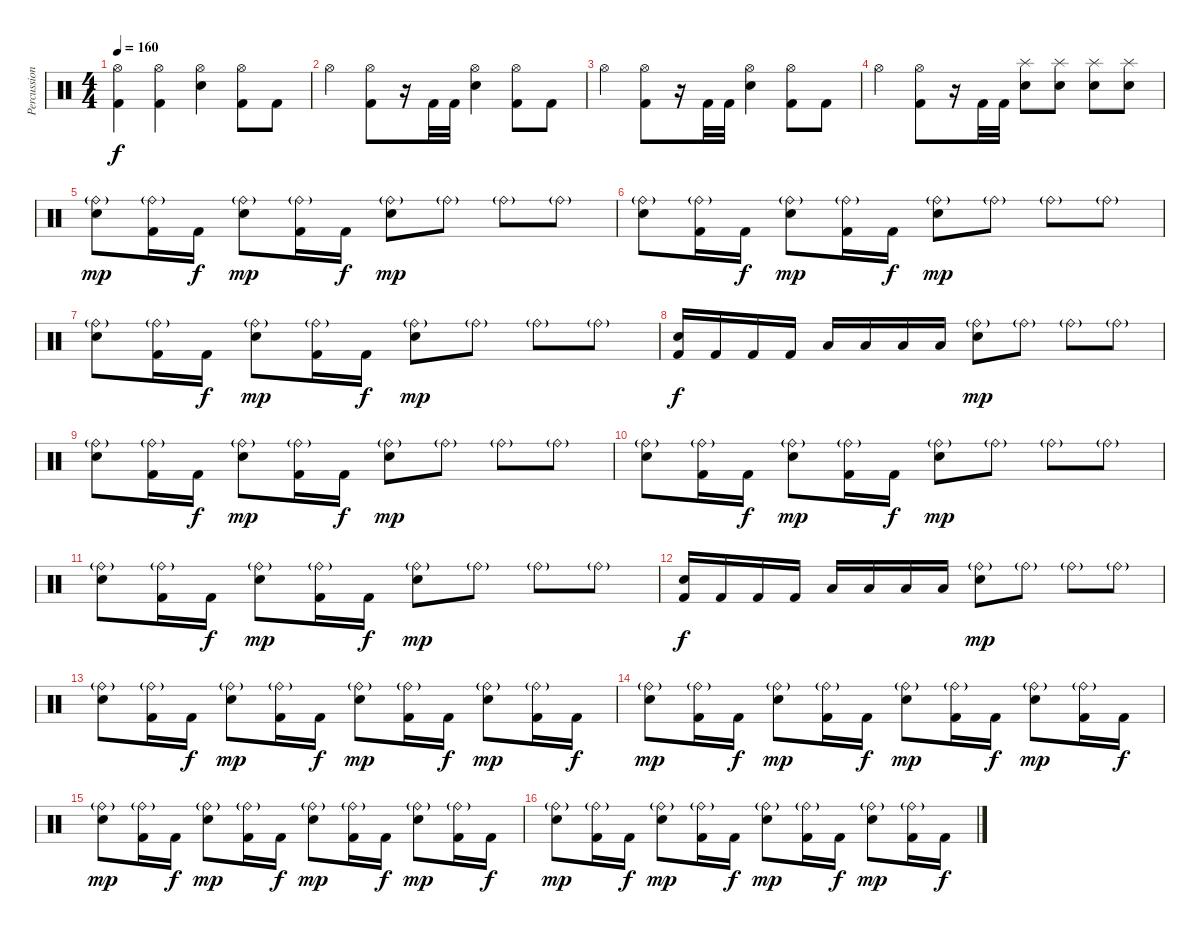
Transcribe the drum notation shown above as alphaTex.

\track ("Percussion" "Percussion") {instrument percussion}
\staff {score}
\articulation defaults
\ts (4 4)
\tempo 160
\clef neutral
\ks c
("Kick (hit) 2" "Hi-Hat (open)").4{dy f} ("Kick (hit) 2" "Hi-Hat (open)").4 ("Electric Snare (hit)" "Hi-Hat (open)").4 ("Kick (hit) 2" "Hi-Hat (open)").8 "Kick (hit) 2".8 |
"Hi-Hat (open)".4 ("Kick (hit) 2" "Hi-Hat (open)").8 r.16 "Kick (hit) 2".32 "Kick (hit) 2".32 ("Electric Snare (hit)" "Hi-Hat (open)").4 ("Kick (hit) 2" "Hi-Hat (open)").8 "Kick (hit) 2".8 |
"Hi-Hat (open)".4 ("Kick (hit) 2" "Hi-Hat (open)").8 r.16 "Kick (hit) 2".32 "Kick (hit) 2".32 ("Electric Snare (hit)" "Hi-Hat (open)").4 ("Kick (hit) 2" "Hi-Hat (open)").8 "Kick (hit) 2".8 |
"Hi-Hat (open)".4 ("Kick (hit) 2" "Hi-Hat (open)").8 r.16 "Kick (hit) 2".32 "Kick (hit) 2".32 ("Electric Snare (hit)" "Splash (hit)").8 ("Electric Snare (hit)" "Splash (hit)").8 ("Electric Snare (hit)" "Splash (hit)").8 ("Electric Snare (hit)" "Splash (hit)").8 |
("Electric Snare (hit)" "Ride (bell)"{g}).8{dy mp} ("Kick (hit) 2" "Ride (bell)"{g}).16 "Kick (hit) 2".16{dy f} ("Electric Snare (hit)" "Ride (bell)"{g}).8{dy mp} ("Kick (hit) 2" "Ride (bell)"{g}).16 "Kick (hit) 2".16{dy f} ("Electric Snare (hit)" "Ride (bell)"{g}).8{dy mp} "Ride (bell)"{g}.8 "Ride (bell)"{g}.8 "Ride (bell)"{g}.8 |
("Electric Snare (hit)" "Ride (bell)"{g}).8 ("Kick (hit) 2" "Ride (bell)"{g}).16 "Kick (hit) 2".16{dy f} ("Electric Snare (hit)" "Ride (bell)"{g}).8{dy mp} ("Kick (hit) 2" "Ride (bell)"{g}).16 "Kick (hit) 2".16{dy f} ("Electric Snare (hit)" "Ride (bell)"{g}).8{dy mp} "Ride (bell)"{g}.8 "Ride (bell)"{g}.8 "Ride (bell)"{g}.8 |
("Electric Snare (hit)" "Ride (bell)"{g}).8 ("Kick (hit) 2" "Ride (bell)"{g}).16 "Kick (hit) 2".16{dy f} ("Electric Snare (hit)" "Ride (bell)"{g}).8{dy mp} ("Kick (hit) 2" "Ride (bell)"{g}).16 "Kick (hit) 2".16{dy f} ("Electric Snare (hit)" "Ride (bell)"{g}).8{dy mp} "Ride (bell)"{g}.8 "Ride (bell)"{g}.8 "Ride (bell)"{g}.8 |
("Kick (hit) 2" "Electric Snare (hit)").16{dy f} "Kick (hit) 2".16 "Kick (hit) 2".16 "Kick (hit) 2".16 "Low Floor Tom (hit)".16 "Low Floor Tom (hit)".16 "Low Floor Tom (hit)".16 "Low Floor Tom (hit)".16 ("Electric Snare (hit)" "Ride (bell)"{g}).8{dy mp} "Ride (bell)"{g}.8 "Ride (bell)"{g}.8 "Ride (bell)"{g}.8 |
("Electric Snare (hit)" "Ride (bell)"{g}).8 ("Kick (hit) 2" "Ride (bell)"{g}).16 "Kick (hit) 2".16{dy f} ("Electric Snare (hit)" "Ride (bell)"{g}).8{dy mp} ("Kick (hit) 2" "Ride (bell)"{g}).16 "Kick (hit) 2".16{dy f} ("Electric Snare (hit)" "Ride (bell)"{g}).8{dy mp} "Ride (bell)"{g}.8 "Ride (bell)"{g}.8 "Ride (bell)"{g}.8 |
("Electric Snare (hit)" "Ride (bell)"{g}).8 ("Kick (hit) 2" "Ride (bell)"{g}).16 "Kick (hit) 2".16{dy f} ("Electric Snare (hit)" "Ride (bell)"{g}).8{dy mp} ("Kick (hit) 2" "Ride (bell)"{g}).16 "Kick (hit) 2".16{dy f} ("Electric Snare (hit)" "Ride (bell)"{g}).8{dy mp} "Ride (bell)"{g}.8 "Ride (bell)"{g}.8 "Ride (bell)"{g}.8 |
("Electric Snare (hit)" "Ride (bell)"{g}).8 ("Kick (hit) 2" "Ride (bell)"{g}).16 "Kick (hit) 2".16{dy f} ("Electric Snare (hit)" "Ride (bell)"{g}).8{dy mp} ("Kick (hit) 2" "Ride (bell)"{g}).16 "Kick (hit) 2".16{dy f} ("Electric Snare (hit)" "Ride (bell)"{g}).8{dy mp} "Ride (bell)"{g}.8 "Ride (bell)"{g}.8 "Ride (bell)"{g}.8 |
("Kick (hit) 2" "Electric Snare (hit)").16{dy f} "Kick (hit) 2".16 "Kick (hit) 2".16 "Kick (hit) 2".16 "Low Floor Tom (hit)".16 "Low Floor Tom (hit)".16 "Low Floor Tom (hit)".16 "Low Floor Tom (hit)".16 ("Electric Snare (hit)" "Ride (bell)"{g}).8{dy mp} "Ride (bell)"{g}.8 "Ride (bell)"{g}.8 "Ride (bell)"{g}.8 |
("Electric Snare (hit)" "Ride (bell)"{g}).8 ("Kick (hit) 2" "Ride (bell)"{g}).16 "Kick (hit) 2".16{dy f} ("Electric Snare (hit)" "Ride (bell)"{g}).8{dy mp} ("Kick (hit) 2" "Ride (bell)"{g}).16 "Kick (hit) 2".16{dy f} ("Electric Snare (hit)" "Ride (bell)"{g}).8{dy mp} ("Kick (hit) 2" "Ride (bell)"{g}).16 "Kick (hit) 2".16{dy f} ("Electric Snare (hit)" "Ride (bell)"{g}).8{dy mp} ("Kick (hit) 2" "Ride (bell)"{g}).16 "Kick (hit) 2".16{dy f} |
("Electric Snare (hit)" "Ride (bell)"{g}).8{dy mp} ("Kick (hit) 2" "Ride (bell)"{g}).16 "Kick (hit) 2".16{dy f} ("Electric Snare (hit)" "Ride (bell)"{g}).8{dy mp} ("Kick (hit) 2" "Ride (bell)"{g}).16 "Kick (hit) 2".16{dy f} ("Electric Snare (hit)" "Ride (bell)"{g}).8{dy mp} ("Kick (hit) 2" "Ride (bell)"{g}).16 "Kick (hit) 2".16{dy f} ("Electric Snare (hit)" "Ride (bell)"{g}).8{dy mp} ("Kick (hit) 2" "Ride (bell)"{g}).16 "Kick (hit) 2".16{dy f} |
("Electric Snare (hit)" "Ride (bell)"{g}).8{dy mp} ("Kick (hit) 2" "Ride (bell)"{g}).16 "Kick (hit) 2".16{dy f} ("Electric Snare (hit)" "Ride (bell)"{g}).8{dy mp} ("Kick (hit) 2" "Ride (bell)"{g}).16 "Kick (hit) 2".16{dy f} ("Electric Snare (hit)" "Ride (bell)"{g}).8{dy mp} ("Kick (hit) 2" "Ride (bell)"{g}).16 "Kick (hit) 2".16{dy f} ("Electric Snare (hit)" "Ride (bell)"{g}).8{dy mp} ("Kick (hit) 2" "Ride (bell)"{g}).16 "Kick (hit) 2".16{dy f} |
("Electric Snare (hit)" "Ride (bell)"{g}).8{dy mp} ("Kick (hit) 2" "Ride (bell)"{g}).16 "Kick (hit) 2".16{dy f} ("Electric Snare (hit)" "Ride (bell)"{g}).8{dy mp} ("Kick (hit) 2" "Ride (bell)"{g}).16 "Kick (hit) 2".16{dy f} ("Electric Snare (hit)" "Ride (bell)"{g}).8{dy mp} ("Kick (hit) 2" "Ride (bell)"{g}).16 "Kick (hit) 2".16{dy f} ("Electric Snare (hit)" "Ride (bell)"{g}).8{dy mp} ("Kick (hit) 2" "Ride (bell)"{g}).16 "Kick (hit) 2".16{dy f}
